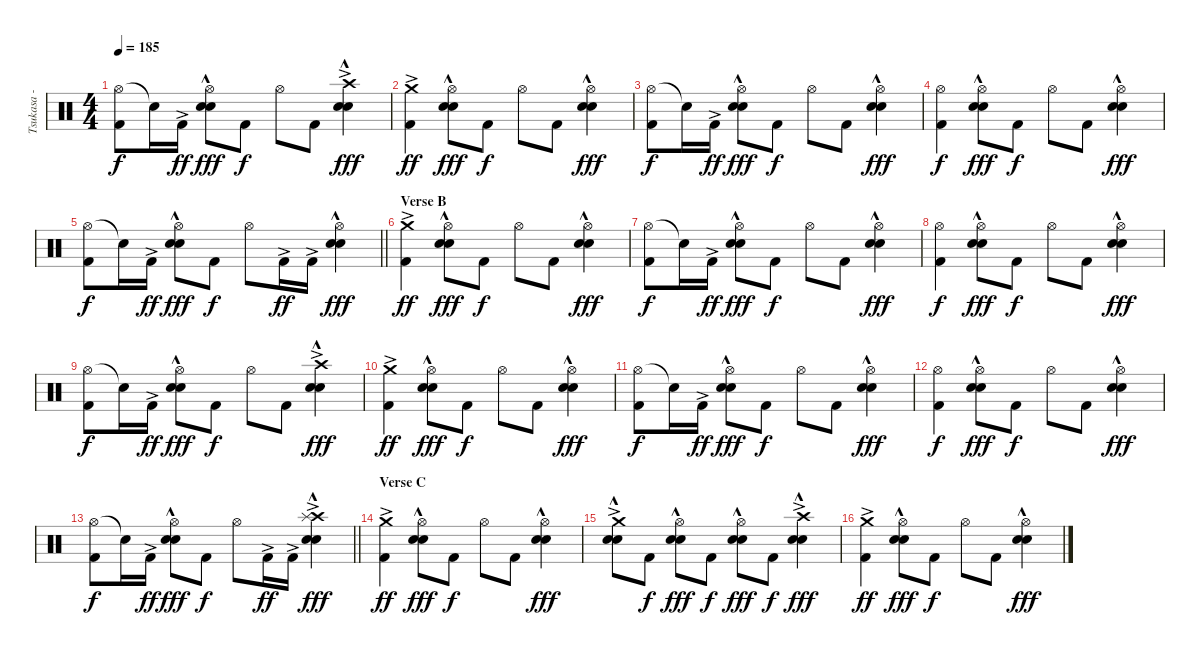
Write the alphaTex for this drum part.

\track ("Tsukasa - Drums" "Tsukasa - ") {instrument percussion}
\staff {score}
\articulation defaults
\ts (4 4)
\tempo 185
\clef neutral
\ks c
("Hi-Hat (open)" "Kick (hit) 2").8{dy f} "Snare (hit)"{t}.16 "Kick (hit) 2"{ac}.16{dy ff} ("Hi-Hat (open)" "Electric Snare (hit)"{hac} "Snare (hit) 2"{hac}).8{dy fff} "Kick (hit) 2".8{dy f} "Hi-Hat (open)".8 "Kick (hit) 2".8 ("Crash high (hit)"{ac} "Electric Snare (hit)"{hac} "Snare (hit) 2"{hac}).4{dy fff} |
("Crash medium (hit)"{ac} "Kick (hit) 2").4{dy ff} ("Hi-Hat (open)" "Electric Snare (hit)"{hac} "Snare (hit) 2"{hac}).8{dy fff} "Kick (hit) 2".8{dy f} "Hi-Hat (open)".8 "Kick (hit) 2".8 ("Hi-Hat (open)" "Electric Snare (hit)"{hac} "Snare (hit) 2"{hac}).4{dy fff} |
("Hi-Hat (open)" "Kick (hit) 2").8{dy f} "Snare (hit)"{t}.16 "Kick (hit) 2"{ac}.16{dy ff} ("Hi-Hat (open)" "Electric Snare (hit)"{hac} "Snare (hit) 2"{hac}).8{dy fff} "Kick (hit) 2".8{dy f} "Hi-Hat (open)".8 "Kick (hit) 2".8 ("Hi-Hat (open)" "Electric Snare (hit)"{hac} "Snare (hit) 2"{hac}).4{dy fff} |
("Hi-Hat (open)" "Kick (hit) 2").4{dy f} ("Hi-Hat (open)" "Electric Snare (hit)"{hac} "Snare (hit) 2"{hac}).8{dy fff} "Kick (hit) 2".8{dy f} "Hi-Hat (open)".8 "Kick (hit) 2".8 ("Hi-Hat (open)" "Electric Snare (hit)"{hac} "Snare (hit) 2"{hac}).4{dy fff} |
\barLineRight lightlight
("Hi-Hat (open)" "Kick (hit) 2").8{dy f} "Snare (hit)"{t}.16 "Kick (hit) 2"{ac}.16{dy ff} ("Hi-Hat (open)" "Electric Snare (hit)"{hac} "Snare (hit) 2"{hac}).8{dy fff} "Kick (hit) 2".8{dy f} "Hi-Hat (open)".8 "Kick (hit) 2"{ac}.16{dy ff} "Kick (hit) 2"{ac}.16 ("Hi-Hat (open)" "Electric Snare (hit)"{hac} "Snare (hit) 2"{hac}).4{dy fff} |
\section ("" "Verse B")
("Crash medium (hit)"{ac} "Kick (hit) 2").4{dy ff} ("Hi-Hat (open)" "Electric Snare (hit)"{hac} "Snare (hit) 2"{hac}).8{dy fff} "Kick (hit) 2".8{dy f} "Hi-Hat (open)".8 "Kick (hit) 2".8 ("Hi-Hat (open)" "Electric Snare (hit)"{hac} "Snare (hit) 2"{hac}).4{dy fff} |
("Hi-Hat (open)" "Kick (hit) 2").8{dy f} "Snare (hit)"{t}.16 "Kick (hit) 2"{ac}.16{dy ff} ("Hi-Hat (open)" "Electric Snare (hit)"{hac} "Snare (hit) 2"{hac}).8{dy fff} "Kick (hit) 2".8{dy f} "Hi-Hat (open)".8 "Kick (hit) 2".8 ("Hi-Hat (open)" "Electric Snare (hit)"{hac} "Snare (hit) 2"{hac}).4{dy fff} |
("Hi-Hat (open)" "Kick (hit) 2").4{dy f} ("Hi-Hat (open)" "Electric Snare (hit)"{hac} "Snare (hit) 2"{hac}).8{dy fff} "Kick (hit) 2".8{dy f} "Hi-Hat (open)".8 "Kick (hit) 2".8 ("Hi-Hat (open)" "Electric Snare (hit)"{hac} "Snare (hit) 2"{hac}).4{dy fff} |
("Hi-Hat (open)" "Kick (hit) 2").8{dy f} "Snare (hit)"{t}.16 "Kick (hit) 2"{ac}.16{dy ff} ("Hi-Hat (open)" "Electric Snare (hit)"{hac} "Snare (hit) 2"{hac}).8{dy fff} "Kick (hit) 2".8{dy f} "Hi-Hat (open)".8 "Kick (hit) 2".8 ("Crash high (hit)"{ac} "Electric Snare (hit)"{hac} "Snare (hit) 2"{hac}).4{dy fff} |
("Crash medium (hit)"{ac} "Kick (hit) 2").4{dy ff} ("Hi-Hat (open)" "Electric Snare (hit)"{hac} "Snare (hit) 2"{hac}).8{dy fff} "Kick (hit) 2".8{dy f} "Hi-Hat (open)".8 "Kick (hit) 2".8 ("Hi-Hat (open)" "Electric Snare (hit)"{hac} "Snare (hit) 2"{hac}).4{dy fff} |
("Hi-Hat (open)" "Kick (hit) 2").8{dy f} "Snare (hit)"{t}.16 "Kick (hit) 2"{ac}.16{dy ff} ("Hi-Hat (open)" "Electric Snare (hit)"{hac} "Snare (hit) 2"{hac}).8{dy fff} "Kick (hit) 2".8{dy f} "Hi-Hat (open)".8 "Kick (hit) 2".8 ("Hi-Hat (open)" "Electric Snare (hit)"{hac} "Snare (hit) 2"{hac}).4{dy fff} |
("Hi-Hat (open)" "Kick (hit) 2").4{dy f} ("Hi-Hat (open)" "Electric Snare (hit)"{hac} "Snare (hit) 2"{hac}).8{dy fff} "Kick (hit) 2".8{dy f} "Hi-Hat (open)".8 "Kick (hit) 2".8 ("Hi-Hat (open)" "Electric Snare (hit)"{hac} "Snare (hit) 2"{hac}).4{dy fff} |
\barLineRight lightlight
("Hi-Hat (open)" "Kick (hit) 2").8{dy f} "Snare (hit)"{t}.16 "Kick (hit) 2"{ac}.16{dy ff} ("Hi-Hat (open)" "Electric Snare (hit)"{hac} "Snare (hit) 2"{hac}).8{dy fff} "Kick (hit) 2".8{dy f} "Hi-Hat (open)".8 "Kick (hit) 2"{ac}.16{dy ff} "Kick (hit) 2"{ac}.16 ("Crash high (hit)"{ac} "Splash (hit)"{ac} "Electric Snare (hit)"{hac} "Snare (hit) 2"{hac}).4{dy fff} |
\section ("" "Verse C")
("Crash medium (hit)"{ac} "Kick (hit) 2").4{dy ff} ("Hi-Hat (open)" "Electric Snare (hit)"{hac} "Snare (hit) 2"{hac}).8{dy fff} "Kick (hit) 2".8{dy f} "Hi-Hat (open)".8 "Kick (hit) 2".8 ("Hi-Hat (open)" "Electric Snare (hit)"{hac} "Snare (hit) 2"{hac}).4{dy fff} |
("Crash medium (hit)"{ac} "Electric Snare (hit)"{hac} "Snare (hit) 2"{hac}).8 "Kick (hit) 2".8{dy f} ("Hi-Hat (open)" "Electric Snare (hit)"{hac} "Snare (hit) 2"{hac}).8{dy fff} "Kick (hit) 2".8{dy f} ("Hi-Hat (open)" "Electric Snare (hit)"{hac} "Snare (hit) 2"{hac}).8{dy fff} "Kick (hit) 2".8{dy f} ("Crash high (hit)"{ac} "Electric Snare (hit)"{hac} "Snare (hit) 2"{hac}).4{dy fff} |
("Crash medium (hit)"{ac} "Kick (hit) 2").4{dy ff} ("Hi-Hat (open)" "Electric Snare (hit)"{hac} "Snare (hit) 2"{hac}).8{dy fff} "Kick (hit) 2".8{dy f} "Hi-Hat (open)".8 "Kick (hit) 2".8 ("Hi-Hat (open)" "Electric Snare (hit)"{hac} "Snare (hit) 2"{hac}).4{dy fff}
